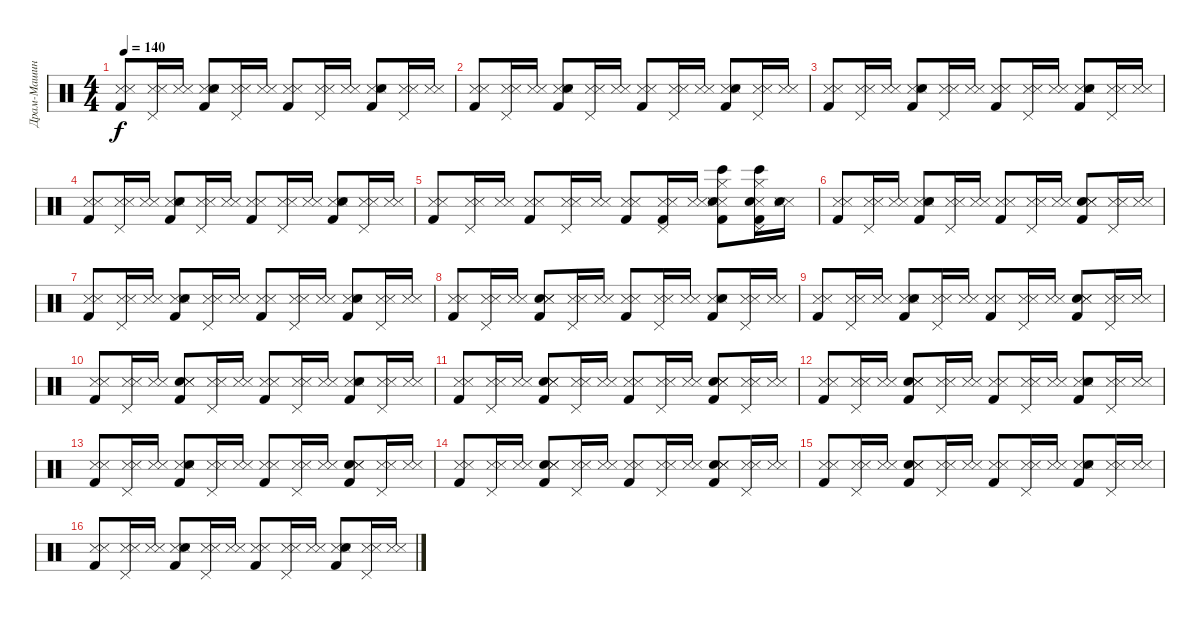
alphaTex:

\track ("Драм-Машина" "Драм-Машин") {instrument percussion}
\staff {score}
\articulation defaults
\ts (4 4)
\tempo 140
\clef neutral
\ks c
("Kick (hit) 2" "Snare (side stick) 3" "Metronome (hit)").8{dy f} ("Snare (side stick) 3" "Pedal Hi-Hat (hit)" "Metronome (hit)").16 ("Snare (side stick) 3" "Metronome (hit)").16 ("Kick (hit) 2" "Snare (side stick) 3" "Snare (hit) 2" "Metronome (hit)").8 ("Snare (side stick) 3" "Pedal Hi-Hat (hit)" "Metronome (hit)").16 ("Snare (side stick) 3" "Metronome (hit)").16 ("Kick (hit) 2" "Snare (side stick) 3" "Metronome (hit)").8 ("Pedal Hi-Hat (hit)" "Snare (side stick) 3" "Metronome (hit)").16 ("Snare (side stick) 3" "Metronome (hit)").16 ("Snare (side stick) 3" "Kick (hit) 2" "Snare (hit) 2" "Metronome (hit)").8 ("Pedal Hi-Hat (hit)" "Snare (side stick) 3" "Metronome (hit)").16 ("Snare (side stick) 3" "Metronome (hit)").16 |
("Kick (hit) 2" "Snare (side stick) 3" "Metronome (hit)").8 ("Pedal Hi-Hat (hit)" "Snare (side stick) 3" "Metronome (hit)").16 ("Snare (side stick) 3" "Metronome (hit)").16 ("Snare (side stick) 3" "Snare (hit) 2" "Kick (hit) 2" "Metronome (hit)").8 ("Snare (side stick) 3" "Pedal Hi-Hat (hit)" "Metronome (hit)").16 ("Snare (side stick) 3" "Metronome (hit)").16 ("Kick (hit) 2" "Snare (side stick) 3" "Metronome (hit)").8 ("Pedal Hi-Hat (hit)" "Snare (side stick) 3" "Metronome (hit)").16 ("Snare (side stick) 3" "Metronome (hit)").16 ("Snare (side stick) 3" "Kick (hit) 2" "Snare (hit) 2" "Metronome (hit)").8 ("Pedal Hi-Hat (hit)" "Snare (side stick) 3" "Metronome (hit)").16 ("Snare (side stick) 3" "Metronome (hit)").16 |
("Snare (side stick) 3" "Kick (hit) 2" "Metronome (hit)").8 ("Pedal Hi-Hat (hit)" "Snare (side stick) 3" "Metronome (hit)").16 ("Snare (side stick) 3" "Metronome (hit)").16 ("Kick (hit) 2" "Snare (side stick) 3" "Snare (hit) 2" "Metronome (hit)").8 ("Pedal Hi-Hat (hit)" "Snare (side stick) 3" "Metronome (hit)").16 ("Snare (side stick) 3" "Metronome (hit)").16 ("Kick (hit) 2" "Snare (side stick) 3" "Metronome (hit)").8 ("Pedal Hi-Hat (hit)" "Snare (side stick) 3" "Metronome (hit)").16 ("Snare (side stick) 3" "Metronome (hit)").16 ("Snare (side stick) 3" "Kick (hit) 2" "Snare (hit) 2" "Metronome (hit)").8 ("Pedal Hi-Hat (hit)" "Snare (side stick) 3" "Metronome (hit)").16 ("Snare (side stick) 3" "Metronome (hit)").16 |
("Snare (side stick) 3" "Kick (hit) 2" "Metronome (hit)").8 ("Snare (side stick) 3" "Pedal Hi-Hat (hit)" "Metronome (hit)").16 ("Snare (side stick) 3" "Metronome (hit)").16 ("Kick (hit) 2" "Snare (side stick) 3" "Snare (hit) 2" "Metronome (hit)").8 ("Snare (side stick) 3" "Pedal Hi-Hat (hit)" "Metronome (hit)").16 ("Snare (side stick) 3" "Metronome (hit)").16 ("Snare (side stick) 3" "Kick (hit) 2" "Metronome (hit)").8 ("Pedal Hi-Hat (hit)" "Snare (side stick) 3" "Metronome (hit)").16 ("Snare (side stick) 3" "Metronome (hit)").16 ("Kick (hit) 2" "Snare (side stick) 3" "Snare (hit) 2" "Metronome (hit)").8 ("Pedal Hi-Hat (hit)" "Snare (side stick) 3" "Metronome (hit)").16 ("Snare (side stick) 3" "Metronome (hit)").16 |
("Kick (hit) 2" "Snare (side stick) 3" "Metronome (hit)").8 ("Pedal Hi-Hat (hit)" "Snare (side stick) 3" "Metronome (hit)").16 ("Snare (side stick) 3" "Metronome (hit)").16 ("Kick (hit) 2" "Snare (side stick) 3" "Metronome (hit)").8 ("Snare (side stick) 3" "Pedal Hi-Hat (hit)" "Metronome (hit)").16 ("Snare (side stick) 3" "Metronome (hit)").16 ("Kick (hit) 2" "Snare (side stick) 3" "Metronome (hit)").8 ("Kick (hit) 2" "Snare (side stick) 3" "Pedal Hi-Hat (hit)" "Metronome (hit)").16 ("Snare (side stick) 3" "Metronome (hit)").16 ("Bongo High (hit)" "Kick (hit) 2" "Hi-Hat (closed)" "Snare (side stick) 3" "Snare (hit) 2" "Metronome (hit)").8 ("Kick (hit) 2" "Snare (side stick) 3" "Pedal Hi-Hat (hit)" "Bongo High (hit)" "Hi-Hat (closed)" "Snare (hit) 2").16 ("Snare (side stick) 3" "Snare (hit) 2" "Metronome (hit)").16 |
("Kick (hit) 2" "Snare (side stick) 3" "Metronome (hit)").8 ("Snare (side stick) 3" "Pedal Hi-Hat (hit)" "Metronome (hit)").16 ("Snare (side stick) 3" "Metronome (hit)").16 ("Snare (side stick) 3" "Kick (hit) 2" "Snare (hit) 2" "Metronome (hit)").8 ("Pedal Hi-Hat (hit)" "Snare (side stick) 3" "Metronome (hit)").16 ("Snare (side stick) 3" "Metronome (hit)").16 ("Snare (side stick) 3" "Kick (hit) 2" "Metronome (hit)").8 ("Snare (side stick) 3" "Pedal Hi-Hat (hit)" "Metronome (hit)").16 ("Snare (side stick) 3" "Metronome (hit)").16 ("Kick (hit) 2" "Snare (hit) 2" "Snare (side stick) 3" "Metronome (hit)").8 ("Pedal Hi-Hat (hit)" "Snare (side stick) 3" "Metronome (hit)").16 ("Snare (side stick) 3" "Metronome (hit)").16 |
("Kick (hit) 2" "Snare (side stick) 3" "Metronome (hit)").8 ("Snare (side stick) 3" "Pedal Hi-Hat (hit)" "Metronome (hit)").16 ("Snare (side stick) 3" "Metronome (hit)").16 ("Snare (side stick) 3" "Snare (hit) 2" "Kick (hit) 2" "Metronome (hit)").8 ("Pedal Hi-Hat (hit)" "Snare (side stick) 3" "Metronome (hit)").16 ("Snare (side stick) 3" "Metronome (hit)").16 ("Snare (side stick) 3" "Kick (hit) 2" "Metronome (hit)").8 ("Pedal Hi-Hat (hit)" "Snare (side stick) 3" "Metronome (hit)").16 ("Snare (side stick) 3" "Metronome (hit)").16 ("Snare (side stick) 3" "Snare (hit) 2" "Kick (hit) 2" "Metronome (hit)").8 ("Pedal Hi-Hat (hit)" "Snare (side stick) 3" "Metronome (hit)").16 ("Snare (side stick) 3" "Metronome (hit)").16 |
("Snare (side stick) 3" "Kick (hit) 2" "Metronome (hit)").8 ("Snare (side stick) 3" "Pedal Hi-Hat (hit)" "Metronome (hit)").16 ("Snare (side stick) 3" "Metronome (hit)").16 ("Kick (hit) 2" "Snare (hit) 2" "Snare (side stick) 3" "Metronome (hit)").8 ("Pedal Hi-Hat (hit)" "Snare (side stick) 3" "Metronome (hit)").16 ("Snare (side stick) 3" "Metronome (hit)").16 ("Snare (side stick) 3" "Kick (hit) 2" "Metronome (hit)").8 ("Pedal Hi-Hat (hit)" "Snare (side stick) 3" "Metronome (hit)").16 ("Snare (side stick) 3" "Metronome (hit)").16 ("Kick (hit) 2" "Snare (side stick) 3" "Snare (hit) 2" "Metronome (hit)").8 ("Snare (side stick) 3" "Pedal Hi-Hat (hit)" "Metronome (hit)").16 ("Snare (side stick) 3" "Metronome (hit)").16 |
("Kick (hit) 2" "Snare (side stick) 3" "Metronome (hit)").8 ("Snare (side stick) 3" "Pedal Hi-Hat (hit)" "Metronome (hit)").16 ("Snare (side stick) 3" "Metronome (hit)").16 ("Kick (hit) 2" "Snare (side stick) 3" "Snare (hit) 2" "Metronome (hit)").8 ("Snare (side stick) 3" "Pedal Hi-Hat (hit)" "Metronome (hit)").16 ("Snare (side stick) 3" "Metronome (hit)").16 ("Kick (hit) 2" "Snare (side stick) 3" "Metronome (hit)").8 ("Pedal Hi-Hat (hit)" "Snare (side stick) 3" "Metronome (hit)").16 ("Snare (side stick) 3" "Metronome (hit)").16 ("Kick (hit) 2" "Snare (hit) 2" "Snare (side stick) 3" "Metronome (hit)").8 ("Snare (side stick) 3" "Pedal Hi-Hat (hit)" "Metronome (hit)").16 ("Snare (side stick) 3" "Metronome (hit)").16 |
("Kick (hit) 2" "Snare (side stick) 3" "Metronome (hit)").8 ("Pedal Hi-Hat (hit)" "Snare (side stick) 3" "Metronome (hit)").16 ("Snare (side stick) 3" "Metronome (hit)").16 ("Snare (hit) 2" "Kick (hit) 2" "Snare (side stick) 3" "Metronome (hit)").8 ("Pedal Hi-Hat (hit)" "Snare (side stick) 3" "Metronome (hit)").16 ("Snare (side stick) 3" "Metronome (hit)").16 ("Snare (side stick) 3" "Kick (hit) 2" "Metronome (hit)").8 ("Pedal Hi-Hat (hit)" "Snare (side stick) 3" "Metronome (hit)").16 ("Snare (side stick) 3" "Metronome (hit)").16 ("Kick (hit) 2" "Snare (side stick) 3" "Snare (hit) 2" "Metronome (hit)").8 ("Snare (side stick) 3" "Pedal Hi-Hat (hit)" "Metronome (hit)").16 ("Snare (side stick) 3" "Metronome (hit)").16 |
("Snare (side stick) 3" "Kick (hit) 2" "Metronome (hit)").8 ("Snare (side stick) 3" "Pedal Hi-Hat (hit)" "Metronome (hit)").16 ("Snare (side stick) 3" "Metronome (hit)").16 ("Kick (hit) 2" "Snare (hit) 2" "Snare (side stick) 3" "Metronome (hit)").8 ("Pedal Hi-Hat (hit)" "Snare (side stick) 3" "Metronome (hit)").16 ("Snare (side stick) 3" "Metronome (hit)").16 ("Kick (hit) 2" "Snare (side stick) 3" "Metronome (hit)").8 ("Pedal Hi-Hat (hit)" "Snare (side stick) 3" "Metronome (hit)").16 ("Snare (side stick) 3" "Metronome (hit)").16 ("Kick (hit) 2" "Snare (hit) 2" "Snare (side stick) 3" "Metronome (hit)").8 ("Snare (side stick) 3" "Pedal Hi-Hat (hit)" "Metronome (hit)").16 ("Snare (side stick) 3" "Metronome (hit)").16 |
("Snare (side stick) 3" "Kick (hit) 2" "Metronome (hit)").8 ("Snare (side stick) 3" "Pedal Hi-Hat (hit)" "Metronome (hit)").16 ("Snare (side stick) 3" "Metronome (hit)").16 ("Kick (hit) 2" "Snare (hit) 2" "Snare (side stick) 3" "Metronome (hit)").8 ("Snare (side stick) 3" "Pedal Hi-Hat (hit)" "Metronome (hit)").16 ("Snare (side stick) 3" "Metronome (hit)").16 ("Kick (hit) 2" "Snare (side stick) 3" "Metronome (hit)").8 ("Pedal Hi-Hat (hit)" "Snare (side stick) 3" "Metronome (hit)").16 ("Snare (side stick) 3" "Metronome (hit)").16 ("Snare (side stick) 3" "Snare (hit) 2" "Kick (hit) 2" "Metronome (hit)").8 ("Pedal Hi-Hat (hit)" "Snare (side stick) 3" "Metronome (hit)").16 ("Snare (side stick) 3" "Metronome (hit)").16 |
("Snare (side stick) 3" "Kick (hit) 2" "Metronome (hit)").8 ("Snare (side stick) 3" "Pedal Hi-Hat (hit)" "Metronome (hit)").16 ("Snare (side stick) 3" "Metronome (hit)").16 ("Kick (hit) 2" "Snare (side stick) 3" "Snare (hit) 2" "Metronome (hit)").8 ("Snare (side stick) 3" "Pedal Hi-Hat (hit)" "Metronome (hit)").16 ("Snare (side stick) 3" "Metronome (hit)").16 ("Kick (hit) 2" "Snare (side stick) 3" "Metronome (hit)").8 ("Pedal Hi-Hat (hit)" "Snare (side stick) 3" "Metronome (hit)").16 ("Snare (side stick) 3" "Metronome (hit)").16 ("Kick (hit) 2" "Snare (hit) 2" "Snare (side stick) 3" "Metronome (hit)").8 ("Pedal Hi-Hat (hit)" "Snare (side stick) 3" "Metronome (hit)").16 ("Snare (side stick) 3" "Metronome (hit)").16 |
("Kick (hit) 2" "Snare (side stick) 3" "Metronome (hit)").8 ("Pedal Hi-Hat (hit)" "Snare (side stick) 3" "Metronome (hit)").16 ("Snare (side stick) 3" "Metronome (hit)").16 ("Snare (hit) 2" "Kick (hit) 2" "Snare (side stick) 3" "Metronome (hit)").8 ("Snare (side stick) 3" "Pedal Hi-Hat (hit)" "Metronome (hit)").16 ("Snare (side stick) 3" "Metronome (hit)").16 ("Kick (hit) 2" "Snare (side stick) 3" "Metronome (hit)").8 ("Pedal Hi-Hat (hit)" "Snare (side stick) 3" "Metronome (hit)").16 ("Snare (side stick) 3" "Metronome (hit)").16 ("Snare (hit) 2" "Kick (hit) 2" "Snare (side stick) 3" "Metronome (hit)").8 ("Pedal Hi-Hat (hit)" "Snare (side stick) 3" "Metronome (hit)").16 ("Snare (side stick) 3" "Metronome (hit)").16 |
("Snare (side stick) 3" "Kick (hit) 2" "Metronome (hit)").8 ("Snare (side stick) 3" "Pedal Hi-Hat (hit)" "Metronome (hit)").16 ("Snare (side stick) 3" "Metronome (hit)").16 ("Kick (hit) 2" "Snare (hit) 2" "Snare (side stick) 3" "Metronome (hit)").8 ("Snare (side stick) 3" "Pedal Hi-Hat (hit)" "Metronome (hit)").16 ("Snare (side stick) 3" "Metronome (hit)").16 ("Kick (hit) 2" "Snare (side stick) 3" "Metronome (hit)").8 ("Pedal Hi-Hat (hit)" "Snare (side stick) 3" "Metronome (hit)").16 ("Snare (side stick) 3" "Metronome (hit)").16 ("Snare (side stick) 3" "Kick (hit) 2" "Snare (hit) 2" "Metronome (hit)").8 ("Pedal Hi-Hat (hit)" "Snare (side stick) 3" "Metronome (hit)").16 ("Snare (side stick) 3" "Metronome (hit)").16 |
("Snare (side stick) 3" "Kick (hit) 2" "Metronome (hit)").8 ("Pedal Hi-Hat (hit)" "Snare (side stick) 3" "Metronome (hit)").16 ("Snare (side stick) 3" "Metronome (hit)").16 ("Kick (hit) 2" "Snare (side stick) 3" "Snare (hit) 2" "Metronome (hit)").8 ("Pedal Hi-Hat (hit)" "Snare (side stick) 3" "Metronome (hit)").16 ("Snare (side stick) 3" "Metronome (hit)").16 ("Kick (hit) 2" "Snare (side stick) 3" "Metronome (hit)").8 ("Pedal Hi-Hat (hit)" "Snare (side stick) 3" "Metronome (hit)").16 ("Snare (side stick) 3" "Metronome (hit)").16 ("Kick (hit) 2" "Snare (side stick) 3" "Snare (hit) 2" "Metronome (hit)").8 ("Pedal Hi-Hat (hit)" "Snare (side stick) 3" "Metronome (hit)").16 ("Snare (side stick) 3" "Metronome (hit)").16
